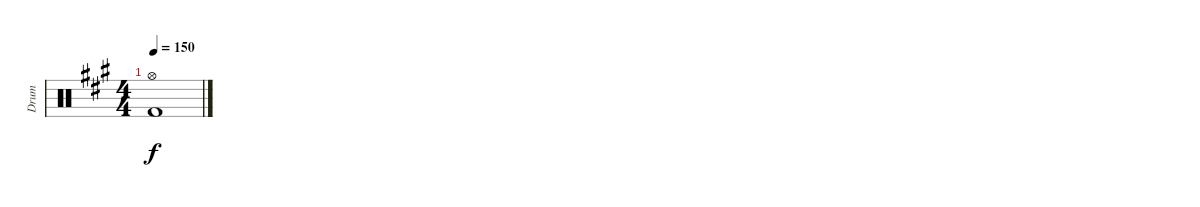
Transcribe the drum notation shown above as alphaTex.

\track ("Drum " "Drum ") {instrument percussion}
\staff {score}
\articulation defaults
\ts (4 4)
\tempo 150
\clef neutral
\ks a
("Hi-Hat (open)" "Kick (hit) 2").1{dy f}
